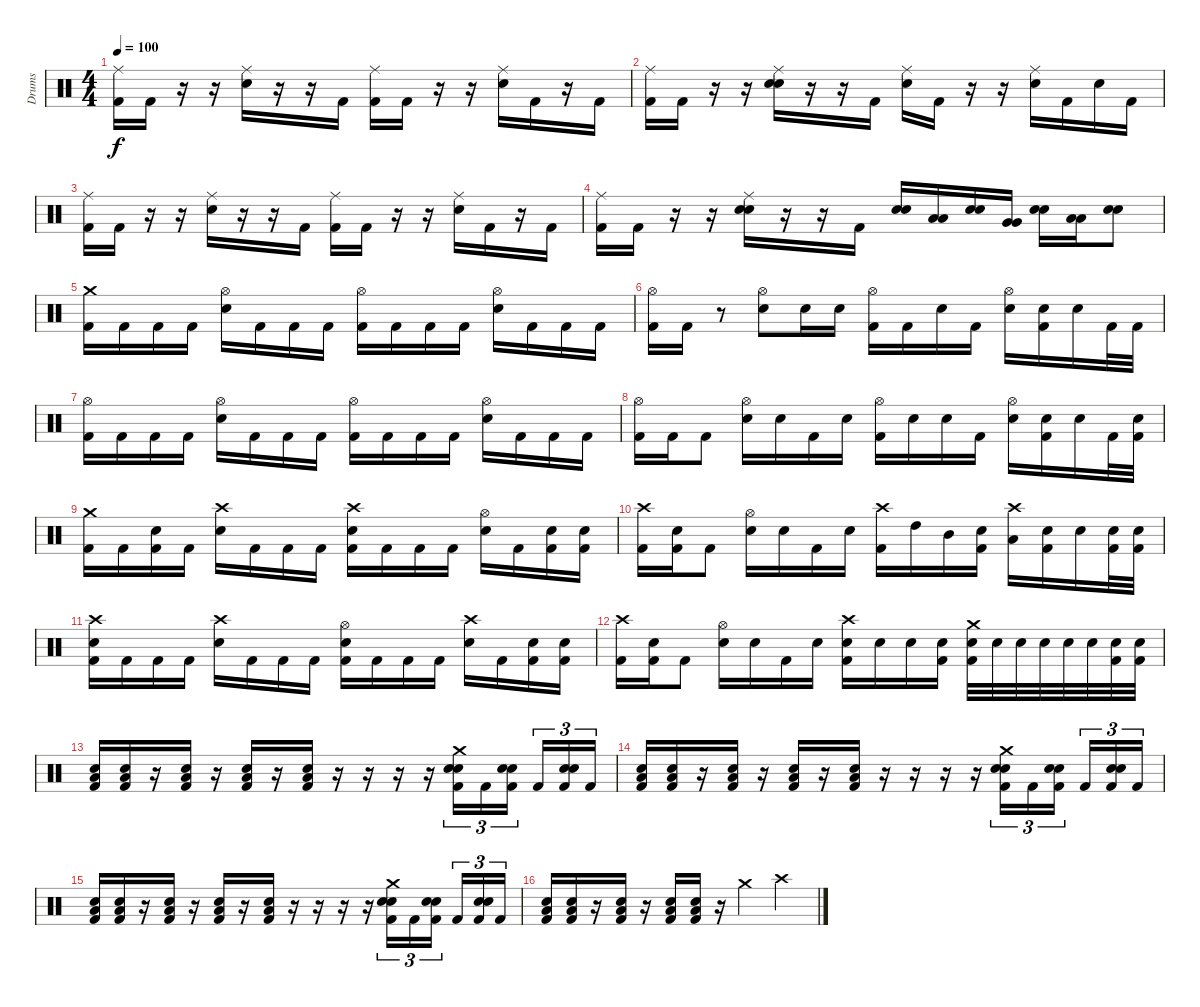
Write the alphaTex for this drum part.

\track ("Drums" "Drums") {instrument percussion}
\staff {score}
\articulation defaults
\ts (4 4)
\tempo 100
\clef neutral
\ks c
("Ride (middle)" "Kick (hit) 2").16{dy f} "Kick (hit) 2".16 r.16 r.16 ("Ride (middle)" "Electric Snare (hit)").16 r.16 r.16 "Kick (hit) 2".16 ("Ride (middle)" "Kick (hit) 2").16 "Kick (hit) 2".16 r.16 r.16 ("Ride (middle)" "Electric Snare (hit)").16 "Kick (hit) 2".16 r.16 "Kick (hit) 2".16 |
("Ride (middle)" "Kick (hit) 2").16 "Kick (hit) 2".16 r.16 r.16 ("Ride (middle)" "Electric Snare (hit)" "Electric Snare (hit)").16 r.16 r.16 "Kick (hit) 2".16 ("Ride (middle)" "Electric Snare (hit)").16 "Kick (hit) 2".16 r.16 r.16 ("Ride (middle)" "Electric Snare (hit)").16 "Kick (hit) 2".16 "Electric Snare (hit)".16 "Kick (hit) 2".16 |
("Ride (middle)" "Kick (hit) 2").16 "Kick (hit) 2".16 r.16 r.16 ("Ride (middle)" "Electric Snare (hit)").16 r.16 r.16 "Kick (hit) 2".16 ("Ride (middle)" "Kick (hit) 2").16 "Kick (hit) 2".16 r.16 r.16 ("Ride (middle)" "Electric Snare (hit)").16 "Kick (hit) 2".16 r.16 "Kick (hit) 2".16 |
("Ride (middle)" "Kick (hit) 2").16 "Kick (hit) 2".16 r.16 r.16 ("Ride (middle)" "Electric Snare (hit)" "Electric Snare (hit)").16 r.16 r.16 "Kick (hit) 2".16 ("Electric Snare (hit)" "Electric Snare (hit)").16 ("Low Floor Tom (hit)" "Low Floor Tom (hit)").16 ("Electric Snare (hit)" "Electric Snare (hit)").16 ("Very Low Tom (hit)" "Very Low Tom (hit)").16 ("Electric Snare (hit)" "Electric Snare (hit)").16 ("Low Tom (hit)" "Low Tom (hit)").16 ("Electric Snare (hit)" "Electric Snare (hit)").8 |
("Crash medium (hit)" "Kick (hit) 2").16 "Kick (hit) 2".16 "Kick (hit) 2".16 "Kick (hit) 2".16 ("Hi-Hat (open)" "Electric Snare (hit)").16 "Kick (hit) 2".16 "Kick (hit) 2".16 "Kick (hit) 2".16 ("Hi-Hat (open)" "Kick (hit) 2").16 "Kick (hit) 2".16 "Kick (hit) 2".16 "Kick (hit) 2".16 ("Hi-Hat (open)" "Electric Snare (hit)").16 "Kick (hit) 2".16 "Kick (hit) 2".16 "Kick (hit) 2".16 |
("Hi-Hat (open)" "Kick (hit) 2").16 "Kick (hit) 2".16 r.8 ("Hi-Hat (open)" "Electric Snare (hit)").8 "Electric Snare (hit)".16 "Electric Snare (hit)".16 ("Hi-Hat (open)" "Kick (hit) 2").16 "Kick (hit) 2".16 "Electric Snare (hit)".16 "Kick (hit) 2".16 ("Hi-Hat (open)" "Electric Snare (hit)").16 ("Electric Snare (hit)" "Kick (hit) 2").16 "Electric Snare (hit)".16 "Kick (hit) 2".32 "Kick (hit) 2".32 |
("Hi-Hat (open)" "Kick (hit) 2").16 "Kick (hit) 2".16 "Kick (hit) 2".16 "Kick (hit) 2".16 ("Hi-Hat (open)" "Electric Snare (hit)").16 "Kick (hit) 2".16 "Kick (hit) 2".16 "Kick (hit) 2".16 ("Hi-Hat (open)" "Kick (hit) 2").16 "Kick (hit) 2".16 "Kick (hit) 2".16 "Kick (hit) 2".16 ("Hi-Hat (open)" "Electric Snare (hit)").16 "Kick (hit) 2".16 "Kick (hit) 2".16 "Kick (hit) 2".16 |
("Hi-Hat (open)" "Kick (hit) 2").16 "Kick (hit) 2".16 "Kick (hit) 2".8 ("Hi-Hat (open)" "Electric Snare (hit)").16 "Electric Snare (hit)".16 "Kick (hit) 2".16 "Electric Snare (hit)".16 ("Hi-Hat (open)" "Kick (hit) 2").16 "Electric Snare (hit)".16 "Electric Snare (hit)".16 "Kick (hit) 2".16 ("Hi-Hat (open)" "Electric Snare (hit)").16 ("Electric Snare (hit)" "Kick (hit) 2").16 "Electric Snare (hit)".16 "Kick (hit) 2".32 ("Electric Snare (hit)" "Kick (hit) 2").32 |
("Crash medium (hit)" "Kick (hit) 2").16 "Kick (hit) 2".16 ("Electric Snare (hit)" "Kick (hit) 2").16 "Kick (hit) 2".16 ("Crash high (hit)" "Electric Snare (hit)").16 "Kick (hit) 2".16 "Kick (hit) 2".16 "Kick (hit) 2".16 ("Crash high (hit)" "Electric Snare (hit)" "Kick (hit) 2").16 "Kick (hit) 2".16 "Kick (hit) 2".16 "Kick (hit) 2".16 ("Hi-Hat (open)" "Electric Snare (hit)").16 "Kick (hit) 2".16 ("Electric Snare (hit)" "Kick (hit) 2").16 ("Electric Snare (hit)" "Kick (hit) 2").16 |
("Crash high (hit)" "Kick (hit) 2").16 ("Electric Snare (hit)" "Kick (hit) 2").16 "Kick (hit) 2".8 ("Hi-Hat (open)" "Electric Snare (hit)").16 "Electric Snare (hit)".16 "Kick (hit) 2".16 "Electric Snare (hit)".16 ("Crash high (hit)" "Kick (hit) 2").16 "High Tom (hit)".16 "Mid Tom (hit)".16 ("Electric Snare (hit)" "Kick (hit) 2").16 ("Crash high (hit)" "Low Tom (hit)").16 ("Electric Snare (hit)" "Kick (hit) 2").16 "Electric Snare (hit)".16 ("Electric Snare (hit)" "Kick (hit) 2").32 ("Electric Snare (hit)" "Kick (hit) 2").32 |
("Crash high (hit)" "Electric Snare (hit)" "Kick (hit) 2").16 "Kick (hit) 2".16 "Kick (hit) 2".16 "Kick (hit) 2".16 ("Crash high (hit)" "Electric Snare (hit)").16 "Kick (hit) 2".16 "Kick (hit) 2".16 "Kick (hit) 2".16 ("Hi-Hat (open)" "Electric Snare (hit)" "Kick (hit) 2").16 "Kick (hit) 2".16 "Kick (hit) 2".16 "Kick (hit) 2".16 ("Crash high (hit)" "Electric Snare (hit)").16 "Kick (hit) 2".16 ("Electric Snare (hit)" "Kick (hit) 2").16 ("Electric Snare (hit)" "Kick (hit) 2").16 |
("Crash high (hit)" "Kick (hit) 2").16 ("Electric Snare (hit)" "Kick (hit) 2").16 "Kick (hit) 2".8 ("Hi-Hat (open)" "Electric Snare (hit)").16 "Electric Snare (hit)".16 "Kick (hit) 2".16 "Electric Snare (hit)".16 ("Crash high (hit)" "Electric Snare (hit)" "Kick (hit) 2").16 "Electric Snare (hit)".16 "Electric Snare (hit)".16 ("Electric Snare (hit)" "Kick (hit) 2").16 ("Crash medium (hit)" "Electric Snare (hit)" "Kick (hit) 2").32 "Electric Snare (hit)".32 "Electric Snare (hit)".32 "Electric Snare (hit)".32 "Electric Snare (hit)".32 "Electric Snare (hit)".32 ("Electric Snare (hit)" "Kick (hit) 2").32 ("Electric Snare (hit)" "Kick (hit) 2").32 |
("Low Floor Tom (hit)" "Electric Snare (hit)" "Kick (hit) 2").16 ("Low Floor Tom (hit)" "Electric Snare (hit)" "Kick (hit) 2").16 r.16 ("Low Floor Tom (hit)" "Electric Snare (hit)" "Kick (hit) 2").16 r.16 ("Low Floor Tom (hit)" "Electric Snare (hit)" "Kick (hit) 2").16 r.16 ("Low Floor Tom (hit)" "Electric Snare (hit)" "Kick (hit) 2").16 r.16 r.16 r.16 r.16 ("Crash medium (hit)" "Electric Snare (hit)" "Electric Snare (hit)" "Kick (hit) 2").16{tu (3 2)} "Kick (hit) 2".16{tu (3 2)} ("Electric Snare (hit)" "Electric Snare (hit)" "Kick (hit) 2").16{tu (3 2)} "Kick (hit) 2".16{tu (3 2)} ("Electric Snare (hit)" "Electric Snare (hit)" "Kick (hit) 2").16{tu (3 2)} "Kick (hit) 2".16{tu (3 2)} |
("Low Floor Tom (hit)" "Electric Snare (hit)" "Kick (hit) 2").16 ("Low Floor Tom (hit)" "Electric Snare (hit)" "Kick (hit) 2").16 r.16 ("Low Floor Tom (hit)" "Electric Snare (hit)" "Kick (hit) 2").16 r.16 ("Low Floor Tom (hit)" "Electric Snare (hit)" "Kick (hit) 2").16 r.16 ("Low Floor Tom (hit)" "Electric Snare (hit)" "Kick (hit) 2").16 r.16 r.16 r.16 r.16 ("Crash medium (hit)" "Electric Snare (hit)" "Electric Snare (hit)" "Kick (hit) 2").16{tu (3 2)} "Kick (hit) 2".16{tu (3 2)} ("Electric Snare (hit)" "Electric Snare (hit)" "Kick (hit) 2").16{tu (3 2)} "Kick (hit) 2".16{tu (3 2)} ("Electric Snare (hit)" "Electric Snare (hit)" "Kick (hit) 2").16{tu (3 2)} "Kick (hit) 2".16{tu (3 2)} |
("Low Floor Tom (hit)" "Electric Snare (hit)" "Kick (hit) 2").16 ("Low Floor Tom (hit)" "Electric Snare (hit)" "Kick (hit) 2").16 r.16 ("Low Floor Tom (hit)" "Electric Snare (hit)" "Kick (hit) 2").16 r.16 ("Low Floor Tom (hit)" "Electric Snare (hit)" "Kick (hit) 2").16 r.16 ("Low Floor Tom (hit)" "Electric Snare (hit)" "Kick (hit) 2").16 r.16 r.16 r.16 r.16 ("Crash medium (hit)" "Electric Snare (hit)" "Electric Snare (hit)" "Kick (hit) 2").16{tu (3 2)} "Kick (hit) 2".16{tu (3 2)} ("Electric Snare (hit)" "Electric Snare (hit)" "Kick (hit) 2").16{tu (3 2)} "Kick (hit) 2".16{tu (3 2)} ("Electric Snare (hit)" "Electric Snare (hit)" "Kick (hit) 2").16{tu (3 2)} "Kick (hit) 2".16{tu (3 2)} |
("Low Floor Tom (hit)" "Electric Snare (hit)" "Kick (hit) 2").16 ("Low Floor Tom (hit)" "Electric Snare (hit)" "Kick (hit) 2").16 r.16 ("Low Floor Tom (hit)" "Electric Snare (hit)" "Kick (hit) 2").16 r.16 ("Low Floor Tom (hit)" "Electric Snare (hit)" "Kick (hit) 2").16 ("Low Floor Tom (hit)" "Electric Snare (hit)" "Kick (hit) 2").16 r.16 "Crash medium (hit)".4 "Crash high (hit)".4
